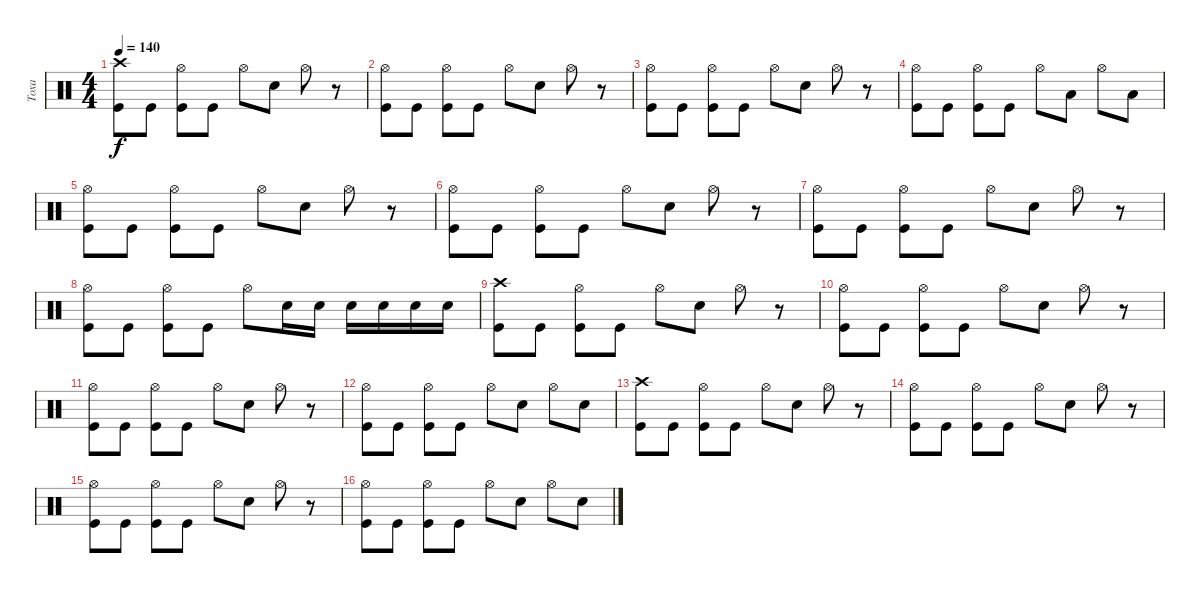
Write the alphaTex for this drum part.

\track ("Тоха" "Тоха") {instrument percussion}
\staff {score}
\articulation defaults
\ts (4 4)
\tempo 140
\clef neutral
\ks c
("Kick (hit)" "Crash high (hit)").8{dy f} "Kick (hit)".8 ("Kick (hit)" "Hi-Hat (open)").8 "Kick (hit)".8 "Hi-Hat (open)".8 "Snare (hit) 2".8 "Hi-Hat (open)".8 r.8 |
("Kick (hit)" "Hi-Hat (open)").8 "Kick (hit)".8 ("Kick (hit)" "Hi-Hat (open)").8 "Kick (hit)".8 "Hi-Hat (open)".8 "Snare (hit) 2".8 "Hi-Hat (open)".8 r.8 |
("Kick (hit)" "Hi-Hat (open)").8 "Kick (hit)".8 ("Kick (hit)" "Hi-Hat (open)").8 "Kick (hit)".8 "Hi-Hat (open)".8 "Snare (hit) 2".8 "Hi-Hat (open)".8 r.8 |
("Kick (hit)" "Hi-Hat (open)").8 "Kick (hit)".8 ("Kick (hit)" "Hi-Hat (open)").8 "Kick (hit)".8 "Hi-Hat (open)".8 "Low Floor Tom (hit)".8 "Hi-Hat (open)".8 "Low Floor Tom (hit)".8 |
("Kick (hit)" "Hi-Hat (open)").8 "Kick (hit)".8 ("Kick (hit)" "Hi-Hat (open)").8 "Kick (hit)".8 "Hi-Hat (open)".8 "Snare (hit) 2".8 "Hi-Hat (open)".8 r.8 |
("Kick (hit)" "Hi-Hat (open)").8 "Kick (hit)".8 ("Kick (hit)" "Hi-Hat (open)").8 "Kick (hit)".8 "Hi-Hat (open)".8 "Snare (hit) 2".8 "Hi-Hat (open)".8 r.8 |
("Kick (hit)" "Hi-Hat (open)").8 "Kick (hit)".8 ("Kick (hit)" "Hi-Hat (open)").8 "Kick (hit)".8 "Hi-Hat (open)".8 "Snare (hit) 2".8 "Hi-Hat (open)".8 r.8 |
("Kick (hit)" "Hi-Hat (open)").8 "Kick (hit)".8 ("Kick (hit)" "Hi-Hat (open)").8 "Kick (hit)".8 "Hi-Hat (open)".8 "Snare (hit) 2".16 "Snare (hit) 2".16 "Snare (hit) 2".16 "Snare (hit) 2".16 "Snare (hit) 2".16 "Snare (hit) 2".16 |
("Kick (hit)" "Crash high (hit)").8 "Kick (hit)".8 ("Kick (hit)" "Hi-Hat (open)").8 "Kick (hit)".8 "Hi-Hat (open)".8 "Snare (hit) 2".8 "Hi-Hat (open)".8 r.8 |
("Kick (hit)" "Hi-Hat (open)").8 "Kick (hit)".8 ("Kick (hit)" "Hi-Hat (open)").8 "Kick (hit)".8 "Hi-Hat (open)".8 "Snare (hit) 2".8 "Hi-Hat (open)".8 r.8 |
("Kick (hit)" "Hi-Hat (open)").8 "Kick (hit)".8 ("Kick (hit)" "Hi-Hat (open)").8 "Kick (hit)".8 "Hi-Hat (open)".8 "Snare (hit) 2".8 "Hi-Hat (open)".8 r.8 |
("Kick (hit)" "Hi-Hat (open)").8 "Kick (hit)".8 ("Kick (hit)" "Hi-Hat (open)").8 "Kick (hit)".8 "Hi-Hat (open)".8 "Snare (hit) 2".8 "Hi-Hat (open)".8 "Snare (hit) 2".8 |
("Kick (hit)" "Crash high (hit)").8 "Kick (hit)".8 ("Kick (hit)" "Hi-Hat (open)").8 "Kick (hit)".8 "Hi-Hat (open)".8 "Snare (hit) 2".8 "Hi-Hat (open)".8 r.8 |
("Kick (hit)" "Hi-Hat (open)").8 "Kick (hit)".8 ("Kick (hit)" "Hi-Hat (open)").8 "Kick (hit)".8 "Hi-Hat (open)".8 "Snare (hit) 2".8 "Hi-Hat (open)".8 r.8 |
("Kick (hit)" "Hi-Hat (open)").8 "Kick (hit)".8 ("Kick (hit)" "Hi-Hat (open)").8 "Kick (hit)".8 "Hi-Hat (open)".8 "Snare (hit) 2".8 "Hi-Hat (open)".8 r.8 |
("Kick (hit)" "Hi-Hat (open)").8 "Kick (hit)".8 ("Kick (hit)" "Hi-Hat (open)").8 "Kick (hit)".8 "Hi-Hat (open)".8 "Snare (hit) 2".8 "Hi-Hat (open)".8 "Snare (hit) 2".8
